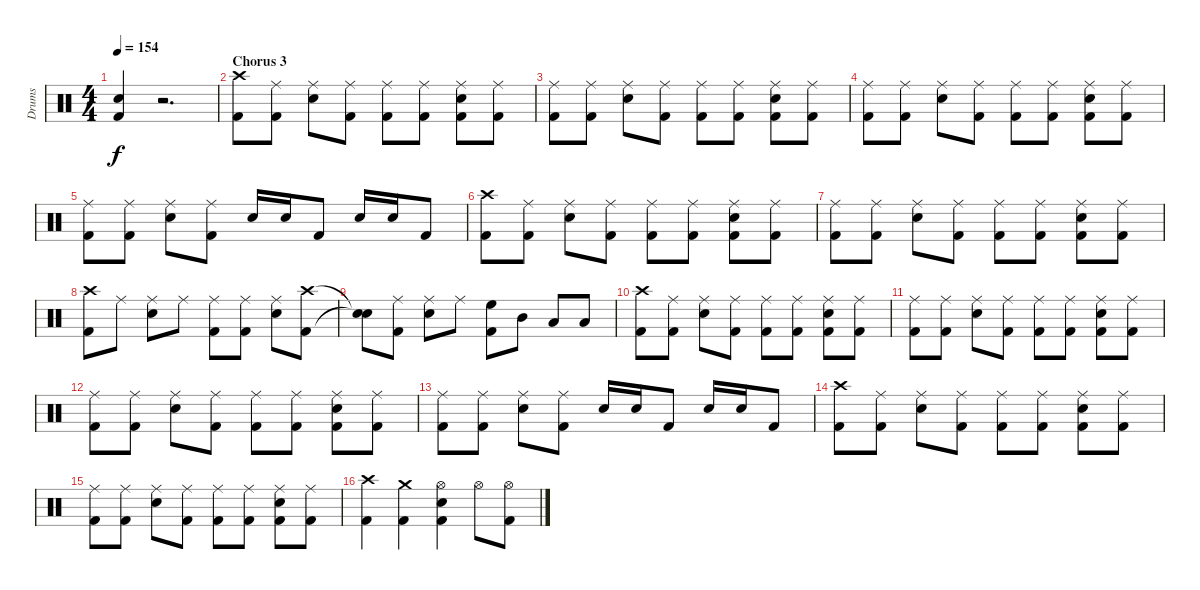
\track ("Drums" "Drums") {instrument percussion}
\staff {score}
\articulation defaults
\ts (4 4)
\tempo 154
\clef neutral
\ks c
("Electric Snare (hit)" "Kick (hit) 2").4{dy f} r.2{d} |
\section ("" "Chorus 3")
("Crash high (hit)" "Kick (hit) 2").8 ("Ride (middle)" "Kick (hit) 2").8 ("Electric Snare (hit)" "Ride (middle)").8 ("Ride (middle)" "Kick (hit) 2").8 ("Ride (middle)" "Kick (hit) 2").8 ("Ride (middle)" "Kick (hit) 2").8 ("Electric Snare (hit)" "Ride (middle)" "Kick (hit) 2").8 ("Ride (middle)" "Kick (hit) 2").8 |
("Ride (middle)" "Kick (hit) 2").8 ("Ride (middle)" "Kick (hit) 2").8 ("Electric Snare (hit)" "Ride (middle)").8 ("Ride (middle)" "Kick (hit) 2").8 ("Ride (middle)" "Kick (hit) 2").8 ("Ride (middle)" "Kick (hit) 2").8 ("Electric Snare (hit)" "Ride (middle)" "Kick (hit) 2").8 ("Ride (middle)" "Kick (hit) 2").8 |
("Ride (middle)" "Kick (hit) 2").8 ("Ride (middle)" "Kick (hit) 2").8 ("Electric Snare (hit)" "Ride (middle)").8 ("Ride (middle)" "Kick (hit) 2").8 ("Ride (middle)" "Kick (hit) 2").8 ("Ride (middle)" "Kick (hit) 2").8 ("Electric Snare (hit)" "Ride (middle)" "Kick (hit) 2").8 ("Ride (middle)" "Kick (hit) 2").8 |
("Ride (middle)" "Kick (hit) 2").8 ("Ride (middle)" "Kick (hit) 2").8 ("Electric Snare (hit)" "Ride (middle)").8 ("Ride (middle)" "Kick (hit) 2").8 "Electric Snare (hit)".16 "Electric Snare (hit)".16 "Kick (hit) 2".8 "Electric Snare (hit)".16 "Electric Snare (hit)".16 "Kick (hit) 2".8 |
("Crash high (hit)" "Kick (hit) 2").8 ("Ride (middle)" "Kick (hit) 2").8 ("Electric Snare (hit)" "Ride (middle)").8 ("Ride (middle)" "Kick (hit) 2").8 ("Ride (middle)" "Kick (hit) 2").8 ("Ride (middle)" "Kick (hit) 2").8 ("Electric Snare (hit)" "Ride (middle)" "Kick (hit) 2").8 ("Ride (middle)" "Kick (hit) 2").8 |
("Ride (middle)" "Kick (hit) 2").8 ("Ride (middle)" "Kick (hit) 2").8 ("Electric Snare (hit)" "Ride (middle)").8 ("Ride (middle)" "Kick (hit) 2").8 ("Ride (middle)" "Kick (hit) 2").8 ("Ride (middle)" "Kick (hit) 2").8 ("Electric Snare (hit)" "Ride (middle)" "Kick (hit) 2").8 ("Ride (middle)" "Kick (hit) 2").8 |
("Crash high (hit)" "Kick (hit) 2").8 "Ride (middle)".8 ("Ride (middle)" "Electric Snare (hit)").8 "Ride (middle)".8 ("Ride (middle)" "Kick (hit) 2").8 ("Ride (middle)" "Kick (hit) 2").8 ("Ride (middle)" "Electric Snare (hit)").8 ("Crash high (hit)" "Kick (hit) 2").8 |
("Snare (hit)"{t} "Snare (hit)"{t}).8 ("Ride (middle)" "Kick (hit) 2").8 ("Ride (middle)" "Electric Snare (hit)").8 "Ride (middle)".8 ("High Floor Tom (hit)" "Kick (hit) 2").8 "Mid Tom (hit)".8 "Low Tom (hit)".8 "Low Floor Tom (hit)".8 |
("Crash high (hit)" "Kick (hit) 2").8 ("Ride (middle)" "Kick (hit) 2").8 ("Electric Snare (hit)" "Ride (middle)").8 ("Ride (middle)" "Kick (hit) 2").8 ("Ride (middle)" "Kick (hit) 2").8 ("Ride (middle)" "Kick (hit) 2").8 ("Electric Snare (hit)" "Ride (middle)" "Kick (hit) 2").8 ("Ride (middle)" "Kick (hit) 2").8 |
("Ride (middle)" "Kick (hit) 2").8 ("Ride (middle)" "Kick (hit) 2").8 ("Electric Snare (hit)" "Ride (middle)").8 ("Ride (middle)" "Kick (hit) 2").8 ("Ride (middle)" "Kick (hit) 2").8 ("Ride (middle)" "Kick (hit) 2").8 ("Electric Snare (hit)" "Ride (middle)" "Kick (hit) 2").8 ("Ride (middle)" "Kick (hit) 2").8 |
("Ride (middle)" "Kick (hit) 2").8 ("Ride (middle)" "Kick (hit) 2").8 ("Electric Snare (hit)" "Ride (middle)").8 ("Ride (middle)" "Kick (hit) 2").8 ("Ride (middle)" "Kick (hit) 2").8 ("Ride (middle)" "Kick (hit) 2").8 ("Electric Snare (hit)" "Ride (middle)" "Kick (hit) 2").8 ("Ride (middle)" "Kick (hit) 2").8 |
("Ride (middle)" "Kick (hit) 2").8 ("Ride (middle)" "Kick (hit) 2").8 ("Electric Snare (hit)" "Ride (middle)").8 ("Ride (middle)" "Kick (hit) 2").8 "Electric Snare (hit)".16 "Electric Snare (hit)".16 "Kick (hit) 2".8 "Electric Snare (hit)".16 "Electric Snare (hit)".16 "Kick (hit) 2".8 |
("Crash high (hit)" "Kick (hit) 2").8 ("Ride (middle)" "Kick (hit) 2").8 ("Electric Snare (hit)" "Ride (middle)").8 ("Ride (middle)" "Kick (hit) 2").8 ("Ride (middle)" "Kick (hit) 2").8 ("Ride (middle)" "Kick (hit) 2").8 ("Electric Snare (hit)" "Ride (middle)" "Kick (hit) 2").8 ("Ride (middle)" "Kick (hit) 2").8 |
("Ride (middle)" "Kick (hit) 2").8 ("Ride (middle)" "Kick (hit) 2").8 ("Electric Snare (hit)" "Ride (middle)").8 ("Ride (middle)" "Kick (hit) 2").8 ("Ride (middle)" "Kick (hit) 2").8 ("Ride (middle)" "Kick (hit) 2").8 ("Electric Snare (hit)" "Ride (middle)" "Kick (hit) 2").8 ("Ride (middle)" "Kick (hit) 2").8 |
("Crash high (hit)" "Kick (hit) 2").4 ("Crash medium (hit)" "Kick (hit) 2").4 ("Hi-Hat (open)" "Electric Snare (hit)" "Kick (hit) 2").4 "Hi-Hat (open)".8 ("Hi-Hat (open)" "Kick (hit) 2").8
